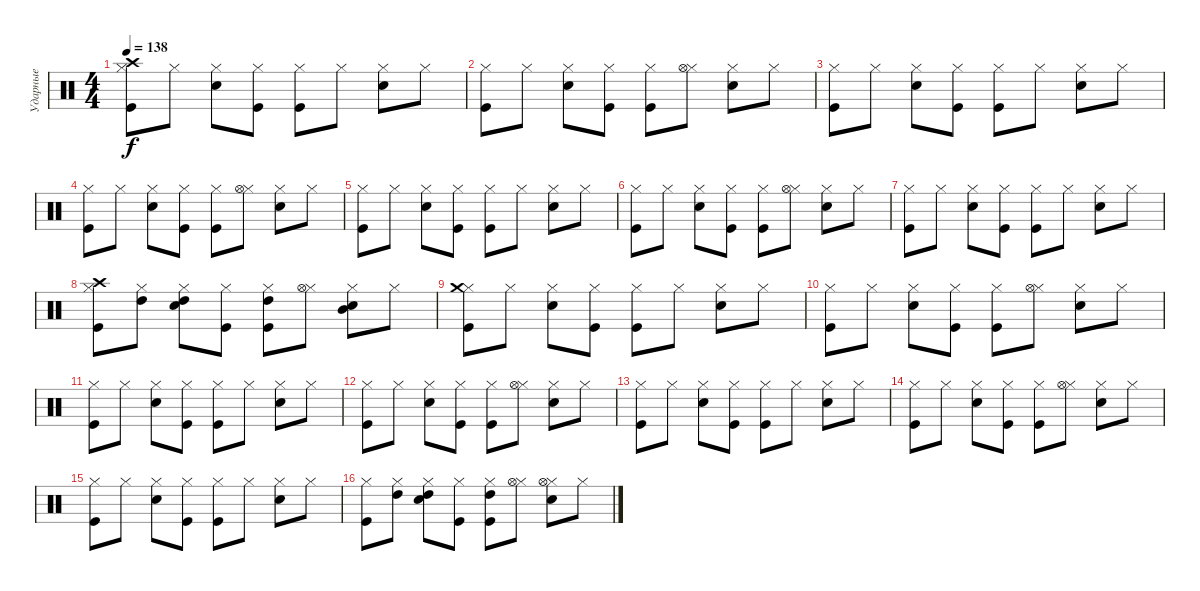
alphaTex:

\track ("Ударные" "Ударные") {instrument percussion}
\staff {score}
\articulation defaults
\ts (4 4)
\tempo 138
\clef neutral
\ks c
("Hi-Hat (closed)" "Kick (hit)" "Crash high (hit)").8{dy f} "Hi-Hat (closed)".8 ("Hi-Hat (closed)" "Snare (hit) 2").8 ("Hi-Hat (closed)" "Kick (hit)").8 ("Hi-Hat (closed)" "Kick (hit)").8 "Hi-Hat (closed)".8 ("Hi-Hat (closed)" "Snare (hit) 2").8 "Hi-Hat (closed)".8 |
("Hi-Hat (closed)" "Kick (hit)").8 "Hi-Hat (closed)".8 ("Hi-Hat (closed)" "Snare (hit) 2").8 ("Hi-Hat (closed)" "Kick (hit)").8 ("Hi-Hat (closed)" "Kick (hit)").8 ("Hi-Hat (closed)" "Hi-Hat (open)").8 ("Hi-Hat (closed)" "Snare (hit) 2").8 "Hi-Hat (closed)".8 |
("Hi-Hat (closed)" "Kick (hit)").8 "Hi-Hat (closed)".8 ("Hi-Hat (closed)" "Snare (hit) 2").8 ("Hi-Hat (closed)" "Kick (hit)").8 ("Hi-Hat (closed)" "Kick (hit)").8 "Hi-Hat (closed)".8 ("Hi-Hat (closed)" "Snare (hit) 2").8 "Hi-Hat (closed)".8 |
("Hi-Hat (closed)" "Kick (hit)").8 "Hi-Hat (closed)".8 ("Hi-Hat (closed)" "Snare (hit) 2").8 ("Hi-Hat (closed)" "Kick (hit)").8 ("Hi-Hat (closed)" "Kick (hit)").8 ("Hi-Hat (closed)" "Hi-Hat (open)").8 ("Hi-Hat (closed)" "Snare (hit) 2").8 "Hi-Hat (closed)".8 |
("Hi-Hat (closed)" "Kick (hit)").8 "Hi-Hat (closed)".8 ("Hi-Hat (closed)" "Snare (hit) 2").8 ("Hi-Hat (closed)" "Kick (hit)").8 ("Hi-Hat (closed)" "Kick (hit)").8 "Hi-Hat (closed)".8 ("Hi-Hat (closed)" "Snare (hit) 2").8 "Hi-Hat (closed)".8 |
("Hi-Hat (closed)" "Kick (hit)").8 "Hi-Hat (closed)".8 ("Hi-Hat (closed)" "Snare (hit) 2").8 ("Hi-Hat (closed)" "Kick (hit)").8 ("Hi-Hat (closed)" "Kick (hit)").8 ("Hi-Hat (closed)" "Hi-Hat (open)").8 ("Hi-Hat (closed)" "Snare (hit) 2").8 "Hi-Hat (closed)".8 |
("Hi-Hat (closed)" "Kick (hit)").8 "Hi-Hat (closed)".8 ("Hi-Hat (closed)" "Snare (hit) 2").8 ("Hi-Hat (closed)" "Kick (hit)").8 ("Hi-Hat (closed)" "Kick (hit)").8 "Hi-Hat (closed)".8 ("Hi-Hat (closed)" "Snare (hit) 2").8 "Hi-Hat (closed)".8 |
("Hi-Hat (closed)" "Kick (hit)" "Crash high (hit)").8 ("Hi-Hat (closed)" "High Tom (hit)").8 ("Hi-Hat (closed)" "Snare (hit) 2" "High Tom (hit)").8 ("Hi-Hat (closed)" "Kick (hit)").8 ("Hi-Hat (closed)" "Kick (hit)" "High Tom (hit)").8 ("Hi-Hat (closed)" "Hi-Hat (open)").8 ("Hi-Hat (closed)" "Snare (hit) 2" "Mid Tom (hit)").8 "Hi-Hat (closed)".8 |
("Hi-Hat (closed)" "Kick (hit)" "Crash medium (hit)").8 "Hi-Hat (closed)".8 ("Hi-Hat (closed)" "Snare (hit) 2").8 ("Hi-Hat (closed)" "Kick (hit)").8 ("Hi-Hat (closed)" "Kick (hit)").8 "Hi-Hat (closed)".8 ("Hi-Hat (closed)" "Snare (hit) 2").8 "Hi-Hat (closed)".8 |
("Hi-Hat (closed)" "Kick (hit)").8 "Hi-Hat (closed)".8 ("Hi-Hat (closed)" "Snare (hit) 2").8 ("Hi-Hat (closed)" "Kick (hit)").8 ("Hi-Hat (closed)" "Kick (hit)").8 ("Hi-Hat (closed)" "Hi-Hat (open)").8 ("Hi-Hat (closed)" "Snare (hit) 2").8 "Hi-Hat (closed)".8 |
("Hi-Hat (closed)" "Kick (hit)").8 "Hi-Hat (closed)".8 ("Hi-Hat (closed)" "Snare (hit) 2").8 ("Hi-Hat (closed)" "Kick (hit)").8 ("Hi-Hat (closed)" "Kick (hit)").8 "Hi-Hat (closed)".8 ("Hi-Hat (closed)" "Snare (hit) 2").8 "Hi-Hat (closed)".8 |
("Hi-Hat (closed)" "Kick (hit)").8 "Hi-Hat (closed)".8 ("Hi-Hat (closed)" "Snare (hit) 2").8 ("Hi-Hat (closed)" "Kick (hit)").8 ("Hi-Hat (closed)" "Kick (hit)").8 ("Hi-Hat (closed)" "Hi-Hat (open)").8 ("Hi-Hat (closed)" "Snare (hit) 2").8 "Hi-Hat (closed)".8 |
("Hi-Hat (closed)" "Kick (hit)").8 "Hi-Hat (closed)".8 ("Hi-Hat (closed)" "Snare (hit) 2").8 ("Hi-Hat (closed)" "Kick (hit)").8 ("Hi-Hat (closed)" "Kick (hit)").8 "Hi-Hat (closed)".8 ("Hi-Hat (closed)" "Snare (hit) 2").8 "Hi-Hat (closed)".8 |
("Hi-Hat (closed)" "Kick (hit)").8 "Hi-Hat (closed)".8 ("Hi-Hat (closed)" "Snare (hit) 2").8 ("Hi-Hat (closed)" "Kick (hit)").8 ("Hi-Hat (closed)" "Kick (hit)").8 ("Hi-Hat (closed)" "Hi-Hat (open)").8 ("Hi-Hat (closed)" "Snare (hit) 2").8 "Hi-Hat (closed)".8 |
("Hi-Hat (closed)" "Kick (hit)").8 "Hi-Hat (closed)".8 ("Hi-Hat (closed)" "Snare (hit) 2").8 ("Hi-Hat (closed)" "Kick (hit)").8 ("Hi-Hat (closed)" "Kick (hit)").8 "Hi-Hat (closed)".8 ("Hi-Hat (closed)" "Snare (hit) 2").8 "Hi-Hat (closed)".8 |
("Hi-Hat (closed)" "Kick (hit)").8 ("Hi-Hat (closed)" "High Tom (hit)").8 ("Hi-Hat (closed)" "Snare (hit) 2" "High Tom (hit)").8 ("Hi-Hat (closed)" "Kick (hit)").8 ("Hi-Hat (closed)" "Kick (hit)" "High Tom (hit)").8 ("Hi-Hat (closed)" "Hi-Hat (open)").8 ("Hi-Hat (closed)" "Snare (hit) 2" "Hi-Hat (open)").8 "Hi-Hat (closed)".8
